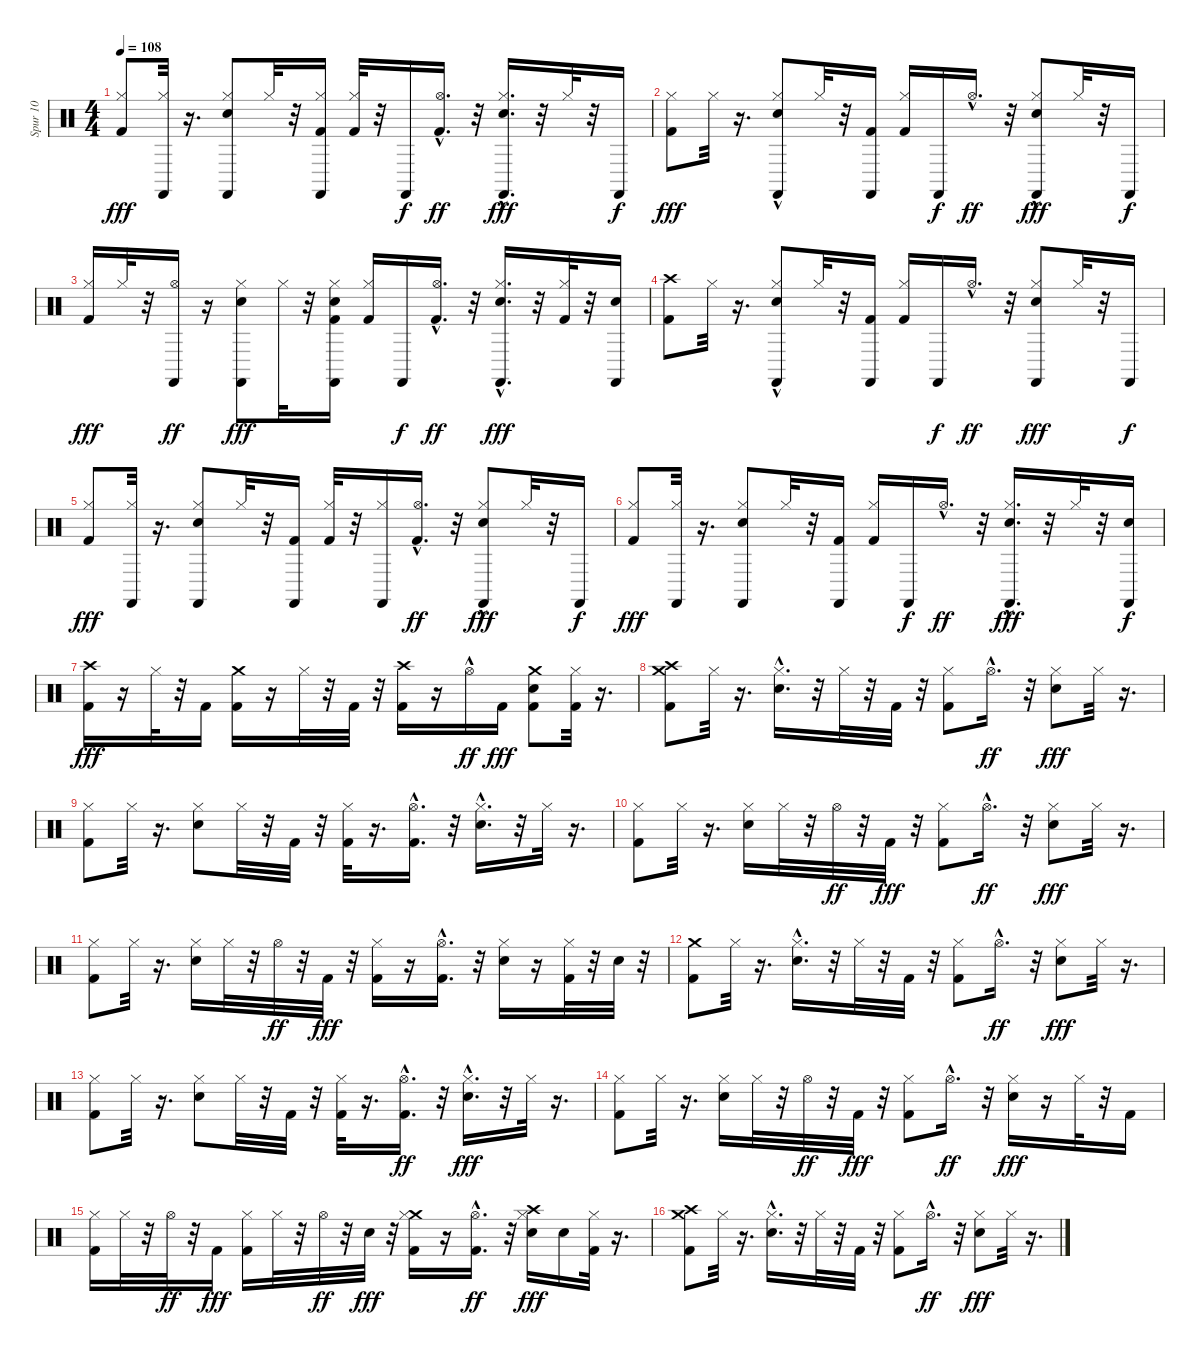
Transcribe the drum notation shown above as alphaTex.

\track ("Spur 10" "Spur 10") {instrument percussion}
\staff {score}
\articulation defaults
\ts (4 4)
\tempo 108
\clef neutral
\ks c
("Kick (hit) 2" "Hi-Hat (closed)").8{dy fff} ("Hi-Hat (closed)" "Castanets (hit)").32 r.16{d} ("Snare (hit) 2" "Hi-Hat (closed)" "Castanets (hit)").8 "Hi-Hat (closed)".32 r.32 ("Hi-Hat (closed)" "Kick (hit) 2" "Castanets (hit)").16 ("Kick (hit) 2" "Hi-Hat (closed)").32 r.32 "Castanets (hit)".16{dy f} ("Kick (hit) 2" "Hi-Hat (open)"{hac}).16{d dy ff} r.32 ("Snare (hit) 2"{hac} "Hi-Hat (closed)" "Castanets (hit)"{hac}).16{d dy fff} r.32 "Hi-Hat (closed)".32 r.32 "Castanets (hit)".16{dy f} |
("Kick (hit) 2" "Hi-Hat (closed)").8{dy fff} "Hi-Hat (closed)".32 r.16{d} ("Snare (hit) 2" "Hi-Hat (closed)" "Castanets (hit)"{hac}).8 "Hi-Hat (closed)".32 r.32 ("Kick (hit) 2" "Castanets (hit)").16 ("Kick (hit) 2" "Hi-Hat (closed)").16 "Castanets (hit)".16{dy f} "Hi-Hat (open)"{hac}.16{d dy ff} r.32 ("Snare (hit) 2" "Hi-Hat (closed)" "Castanets (hit)"{hac}).8{dy fff} "Hi-Hat (closed)".32 r.32 "Castanets (hit)".16{dy f} |
("Kick (hit) 2" "Hi-Hat (closed)").16{dy fff} "Hi-Hat (closed)".32 r.32 ("Hi-Hat (open)" "Castanets (hit)").16{dy ff} r.16 ("Snare (hit) 2" "Hi-Hat (closed)" "Castanets (hit)").8{dy fff} "Hi-Hat (closed)".32 r.32 ("Hi-Hat (closed)" "Kick (hit) 2" "Castanets (hit)" "Electric Snare (hit)").16 ("Kick (hit) 2" "Hi-Hat (closed)").16 "Castanets (hit)".16{dy f} ("Kick (hit) 2" "Hi-Hat (open)"{hac}).16{d dy ff} r.32 ("Hi-Hat (closed)" "Castanets (hit)"{hac} "Snare (hit) 2").16{d dy fff} r.32 ("Kick (hit) 2" "Hi-Hat (closed)").32 r.32 ("Electric Snare (hit)" "Castanets (hit)").16 |
("Kick (hit) 2" "Crash high (hit)").8 "Hi-Hat (closed)".32 r.16{d} ("Castanets (hit)" "Snare (hit) 2"{hac} "Hi-Hat (closed)").8 "Hi-Hat (closed)".32 r.32 ("Castanets (hit)" "Kick (hit) 2").16 ("Kick (hit) 2" "Hi-Hat (closed)").16 "Castanets (hit)".16{dy f} "Hi-Hat (open)"{hac}.16{d dy ff} r.32 ("Castanets (hit)" "Snare (hit) 2" "Hi-Hat (closed)").8{dy fff} "Hi-Hat (closed)".32 r.32 "Castanets (hit)".16{dy f} |
("Kick (hit) 2" "Hi-Hat (closed)").8{dy fff} ("Castanets (hit)" "Hi-Hat (closed)").32 r.16{d} ("Castanets (hit)" "Snare (hit) 2" "Hi-Hat (closed)").8 "Hi-Hat (closed)".32 r.32 ("Castanets (hit)" "Kick (hit) 2").16 ("Kick (hit) 2" "Hi-Hat (closed)").32 r.32 ("Hi-Hat (closed)" "Castanets (hit)").16 ("Kick (hit) 2" "Hi-Hat (open)"{hac}).16{d dy ff} r.32 ("Castanets (hit)" "Snare (hit) 2"{hac} "Hi-Hat (closed)").8{dy fff} "Hi-Hat (closed)".32 r.32 "Castanets (hit)".16{dy f} |
("Kick (hit) 2" "Hi-Hat (closed)").8{dy fff} ("Castanets (hit)" "Hi-Hat (closed)").32 r.16{d} ("Castanets (hit)" "Snare (hit) 2" "Hi-Hat (closed)").8 "Hi-Hat (closed)".32 r.32 ("Castanets (hit)" "Kick (hit) 2").16 ("Kick (hit) 2" "Hi-Hat (closed)").16 "Castanets (hit)".16{dy f} "Hi-Hat (open)"{hac}.16{d dy ff} r.32 ("Castanets (hit)"{hac} "Snare (hit) 2" "Hi-Hat (closed)").16{d dy fff} r.32 "Hi-Hat (closed)".32 r.32 ("Electric Snare (hit)" "Castanets (hit)").16{dy f} |
("Kick (hit) 2" "Crash high (hit)").16{dy fff} r.16 "Hi-Hat (closed)".32 r.32 "Kick (hit) 2".16 ("Kick (hit) 2" "Crash medium (hit)").16 r.16 "Hi-Hat (closed)".32 r.32 "Kick (hit) 2".32 r.32 ("Kick (hit) 2" "Crash high (hit)").16 r.16 "Hi-Hat (open)"{hac}.16{dy ff} "Kick (hit) 2".16{dy fff} ("Snare (hit) 2" "Kick (hit) 2" "Crash medium (hit)").8 ("Kick (hit) 2" "Hi-Hat (closed)").32 r.16{d} |
("Crash medium (hit)" "Crash high (hit)" "Kick (hit) 2").8 "Hi-Hat (closed)".32 r.16{d} ("Hi-Hat (closed)" "Snare (hit) 2"{hac}).16{d} r.32 "Hi-Hat (closed)".32 r.32 "Kick (hit) 2".32 r.32 ("Hi-Hat (closed)" "Kick (hit) 2").8 "Hi-Hat (open)"{hac}.16{d dy ff} r.32 ("Hi-Hat (closed)" "Snare (hit) 2").8{dy fff} "Hi-Hat (closed)".32 r.16{d} |
("Hi-Hat (closed)" "Kick (hit) 2").8 "Hi-Hat (closed)".32 r.16{d} ("Hi-Hat (closed)" "Snare (hit) 2").8 "Hi-Hat (closed)".32 r.32 "Kick (hit) 2".32 r.32 ("Hi-Hat (closed)" "Kick (hit) 2").32 r.16{d} ("Hi-Hat (open)"{hac} "Kick (hit) 2").16{d} r.32 ("Hi-Hat (closed)" "Snare (hit) 2"{hac}).16{d} r.32 "Hi-Hat (closed)".32 r.16{d} |
("Hi-Hat (closed)" "Kick (hit) 2").8 "Hi-Hat (closed)".32 r.16{d} ("Hi-Hat (closed)" "Snare (hit) 2").16 "Hi-Hat (closed)".32 r.32 "Hi-Hat (open)".32{dy ff} r.32 "Kick (hit) 2".32{dy fff} r.32 ("Hi-Hat (closed)" "Kick (hit) 2").8 "Hi-Hat (open)"{hac}.16{d dy ff} r.32 ("Hi-Hat (closed)" "Snare (hit) 2").8{dy fff} "Hi-Hat (closed)".32 r.16{d} |
("Hi-Hat (closed)" "Kick (hit) 2").8 "Hi-Hat (closed)".32 r.16{d} ("Hi-Hat (closed)" "Snare (hit) 2").16 "Hi-Hat (closed)".32 r.32 "Hi-Hat (open)".32{dy ff} r.32 "Kick (hit) 2".32{dy fff} r.32 ("Hi-Hat (closed)" "Kick (hit) 2").16 r.16 ("Hi-Hat (open)"{hac} "Kick (hit) 2").16{d} r.32 ("Hi-Hat (closed)" "Snare (hit) 2").16 r.16 ("Hi-Hat (closed)" "Kick (hit) 2").32 r.32 "Electric Snare (hit)".32 r.32 |
("Kick (hit) 2" "Crash medium (hit)").8 "Hi-Hat (closed)".32 r.16{d} ("Snare (hit) 2"{hac} "Hi-Hat (closed)").16{d} r.32 "Hi-Hat (closed)".32 r.32 "Kick (hit) 2".32 r.32 ("Kick (hit) 2" "Hi-Hat (closed)").8 "Hi-Hat (open)"{hac}.16{d dy ff} r.32 ("Snare (hit) 2" "Hi-Hat (closed)").8{dy fff} "Hi-Hat (closed)".32 r.16{d} |
("Kick (hit) 2" "Hi-Hat (closed)").8 "Hi-Hat (closed)".32 r.16{d} ("Snare (hit) 2" "Hi-Hat (closed)").8 "Hi-Hat (closed)".32 r.32 "Kick (hit) 2".32 r.32 ("Kick (hit) 2" "Hi-Hat (closed)").32 r.16{d} ("Kick (hit) 2" "Hi-Hat (open)"{hac}).16{d dy ff} r.32 ("Snare (hit) 2"{hac} "Hi-Hat (closed)").16{d dy fff} r.32 "Hi-Hat (closed)".32 r.16{d} |
("Kick (hit) 2" "Hi-Hat (closed)").8 "Hi-Hat (closed)".32 r.16{d} ("Snare (hit) 2" "Hi-Hat (closed)").16 "Hi-Hat (closed)".32 r.32 "Hi-Hat (open)".32{dy ff} r.32 "Kick (hit) 2".32{dy fff} r.32 ("Kick (hit) 2" "Hi-Hat (closed)").8 "Hi-Hat (open)"{hac}.16{d dy ff} r.32 ("Snare (hit) 2" "Hi-Hat (closed)").16{dy fff} r.16 "Hi-Hat (closed)".32 r.32 "Kick (hit) 2".16 |
("Kick (hit) 2" "Hi-Hat (closed)").16 "Hi-Hat (closed)".32 r.32 "Hi-Hat (open)".32{dy ff} r.32 "Kick (hit) 2".16{dy fff} ("Kick (hit) 2" "Hi-Hat (closed)").16 "Hi-Hat (closed)".32 r.32 "Hi-Hat (open)".32{dy ff} r.32 "Electric Snare (hit)".32{dy fff} r.32 ("Crash medium (hit)" "Kick (hit) 2" "Hi-Hat (closed)").16 r.16 ("Kick (hit) 2" "Hi-Hat (open)"{hac}).16{d dy ff} r.32 ("Crash high (hit)" "Electric Snare (hit)" "Hi-Hat (closed)").16{dy fff} "Electric Snare (hit)".16 ("Kick (hit) 2" "Hi-Hat (closed)").32 r.16{d} |
("Kick (hit) 2" "Crash medium (hit)" "Crash high (hit)").8 "Hi-Hat (closed)".32 r.16{d} ("Snare (hit) 2"{hac} "Hi-Hat (closed)").16{d} r.32 "Hi-Hat (closed)".32 r.32 "Kick (hit) 2".32 r.32 ("Kick (hit) 2" "Hi-Hat (closed)").8 "Hi-Hat (open)"{hac}.16{d dy ff} r.32 ("Snare (hit) 2" "Hi-Hat (closed)").8{dy fff} "Hi-Hat (closed)".32 r.16{d}
